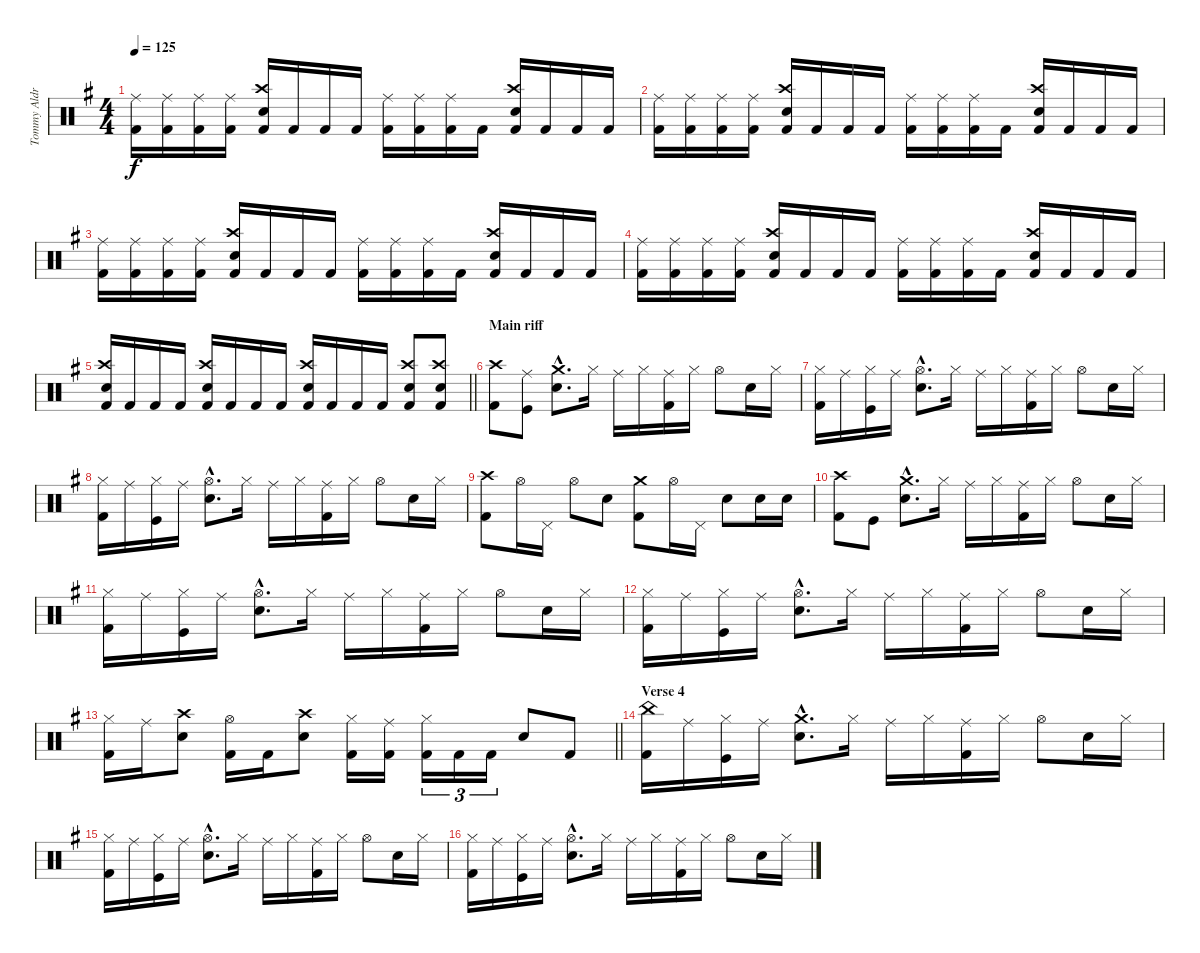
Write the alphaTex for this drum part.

\track ("Tommy Aldridge" "Tommy Aldr") {instrument percussion}
\staff {score}
\articulation defaults
\ts (4 4)
\tempo 125
\clef neutral
\ks eminor
("Ride (middle)" "Kick (hit) 2").16{dy f} ("Ride (middle)" "Kick (hit) 2").16 ("Ride (middle)" "Kick (hit) 2").16 ("Ride (middle)" "Kick (hit) 2").16 ("Crash high (hit)" "Snare (hit) 2" "Kick (hit) 2").16 "Kick (hit) 2".16 "Kick (hit) 2".16 "Kick (hit) 2".16 ("Ride (middle)" "Kick (hit) 2").16 ("Ride (middle)" "Kick (hit) 2").16 ("Ride (middle)" "Kick (hit) 2").16 "Kick (hit) 2".16 ("Crash high (hit)" "Snare (hit) 2" "Kick (hit) 2").16 "Kick (hit) 2".16 "Kick (hit) 2".16 "Kick (hit) 2".16 |
("Ride (middle)" "Kick (hit) 2").16 ("Ride (middle)" "Kick (hit) 2").16 ("Ride (middle)" "Kick (hit) 2").16 ("Ride (middle)" "Kick (hit) 2").16 ("Crash high (hit)" "Snare (hit) 2" "Kick (hit) 2").16 "Kick (hit) 2".16 "Kick (hit) 2".16 "Kick (hit) 2".16 ("Ride (middle)" "Kick (hit) 2").16 ("Ride (middle)" "Kick (hit) 2").16 ("Ride (middle)" "Kick (hit) 2").16 "Kick (hit) 2".16 ("Crash high (hit)" "Snare (hit) 2" "Kick (hit) 2").16 "Kick (hit) 2".16 "Kick (hit) 2".16 "Kick (hit) 2".16 |
("Ride (middle)" "Kick (hit) 2").16 ("Ride (middle)" "Kick (hit) 2").16 ("Ride (middle)" "Kick (hit) 2").16 ("Ride (middle)" "Kick (hit) 2").16 ("Crash high (hit)" "Snare (hit) 2" "Kick (hit) 2").16 "Kick (hit) 2".16 "Kick (hit) 2".16 "Kick (hit) 2".16 ("Ride (middle)" "Kick (hit) 2").16 ("Ride (middle)" "Kick (hit) 2").16 ("Ride (middle)" "Kick (hit) 2").16 "Kick (hit) 2".16 ("Crash high (hit)" "Snare (hit) 2" "Kick (hit) 2").16 "Kick (hit) 2".16 "Kick (hit) 2".16 "Kick (hit) 2".16 |
("Ride (middle)" "Kick (hit) 2").16 ("Ride (middle)" "Kick (hit) 2").16 ("Ride (middle)" "Kick (hit) 2").16 ("Ride (middle)" "Kick (hit) 2").16 ("Crash high (hit)" "Snare (hit) 2" "Kick (hit) 2").16 "Kick (hit) 2".16 "Kick (hit) 2".16 "Kick (hit) 2".16 ("Ride (middle)" "Kick (hit) 2").16 ("Ride (middle)" "Kick (hit) 2").16 ("Ride (middle)" "Kick (hit) 2").16 "Kick (hit) 2".16 ("Crash high (hit)" "Snare (hit) 2" "Kick (hit) 2").16 "Kick (hit) 2".16 "Kick (hit) 2".16 "Kick (hit) 2".16 |
\barLineRight lightlight
("Crash high (hit)" "Snare (hit) 2" "Kick (hit) 2").16 "Kick (hit) 2".16 "Kick (hit) 2".16 "Kick (hit) 2".16 ("Crash high (hit)" "Snare (hit) 2" "Kick (hit) 2").16 "Kick (hit) 2".16 "Kick (hit) 2".16 "Kick (hit) 2".16 ("Crash high (hit)" "Snare (hit) 2" "Kick (hit) 2").16 "Kick (hit) 2".16 "Kick (hit) 2".16 "Kick (hit) 2".16 ("Crash high (hit)" "Snare (hit) 2" "Kick (hit) 2").8 ("Crash high (hit)" "Snare (hit) 2" "Kick (hit) 2").8 |
\section ("" "Main riff")
("Crash high (hit)" "Kick (hit) 2").8 ("Ride (middle)" "Kick (hit)").8 ("Crash medium (hit)"{hac} "Snare (hit) 2"{hac}).8{d} "Hi-Hat (closed)".16 "Ride (middle)".16 "Hi-Hat (closed)".16 ("Ride (middle)" "Kick (hit) 2").16 "Hi-Hat (closed)".16 "Hi-Hat (open)".8 "Snare (hit) 2".16 "Hi-Hat (closed)".16 |
("Hi-Hat (closed)" "Kick (hit) 2").16 "Ride (middle)".16 ("Hi-Hat (closed)" "Kick (hit)").16 "Ride (middle)".16 ("Hi-Hat (open)"{hac} "Snare (hit) 2"{hac}).8{d} "Hi-Hat (closed)".16 "Ride (middle)".16 "Hi-Hat (closed)".16 ("Ride (middle)" "Kick (hit) 2").16 "Hi-Hat (closed)".16 "Hi-Hat (open)".8 "Snare (hit) 2".16 "Hi-Hat (closed)".16 |
("Hi-Hat (closed)" "Kick (hit) 2").16 "Ride (middle)".16 ("Hi-Hat (closed)" "Kick (hit)").16 "Ride (middle)".16 ("Hi-Hat (open)"{hac} "Snare (hit) 2"{hac}).8{d} "Hi-Hat (closed)".16 "Ride (middle)".16 "Hi-Hat (closed)".16 ("Ride (middle)" "Kick (hit) 2").16 "Hi-Hat (closed)".16 "Hi-Hat (open)".8 "Snare (hit) 2".16 "Hi-Hat (closed)".16 |
("Crash high (hit)" "Kick (hit) 2").8 "Hi-Hat (open)".16 "Pedal Hi-Hat (hit)".16 "Hi-Hat (open)".8 "Snare (hit) 2".8 ("Crash medium (hit)" "Kick (hit) 2").8 "Hi-Hat (open)".16 "Pedal Hi-Hat (hit)".16 "Snare (hit) 2".8 "Snare (hit) 2".16 "Snare (hit) 2".16 |
("Crash high (hit)" "Kick (hit) 2").8 "Kick (hit)".8 ("Crash medium (hit)"{hac} "Snare (hit) 2"{hac}).8{d} "Hi-Hat (closed)".16 "Ride (middle)".16 "Hi-Hat (closed)".16 ("Ride (middle)" "Kick (hit) 2").16 "Hi-Hat (closed)".16 "Hi-Hat (open)".8 "Snare (hit) 2".16 "Hi-Hat (closed)".16 |
("Hi-Hat (closed)" "Kick (hit) 2").16 "Ride (middle)".16 ("Hi-Hat (closed)" "Kick (hit)").16 "Ride (middle)".16 ("Hi-Hat (open)"{hac} "Snare (hit) 2"{hac}).8{d} "Hi-Hat (closed)".16 "Ride (middle)".16 "Hi-Hat (closed)".16 ("Ride (middle)" "Kick (hit) 2").16 "Hi-Hat (closed)".16 "Hi-Hat (open)".8 "Snare (hit) 2".16 "Hi-Hat (closed)".16 |
("Hi-Hat (closed)" "Kick (hit) 2").16 "Ride (middle)".16 ("Hi-Hat (closed)" "Kick (hit)").16 "Ride (middle)".16 ("Hi-Hat (open)"{hac} "Snare (hit) 2"{hac}).8{d} "Hi-Hat (closed)".16 "Ride (middle)".16 "Hi-Hat (closed)".16 ("Ride (middle)" "Kick (hit) 2").16 "Hi-Hat (closed)".16 "Hi-Hat (open)".8 "Snare (hit) 2".16 "Hi-Hat (closed)".16 |
\barLineRight lightlight
("Hi-Hat (closed)" "Kick (hit) 2").16 "Ride (middle)".16 ("Crash high (hit)" "Snare (hit) 2").8 ("Hi-Hat (open)" "Kick (hit) 2").16 "Kick (hit) 2".16 ("Crash high (hit)" "Snare (hit) 2").8 ("Hi-Hat (closed)" "Kick (hit) 2").16 ("Ride (middle)" "Kick (hit) 2").16 ("Hi-Hat (closed)" "Kick (hit) 2").16{tu (3 2)} "Kick (hit) 2".16{tu (3 2)} "Kick (hit) 2".16{tu (3 2)} "Snare (hit) 2".8 "Kick (hit) 2".8 |
\section ("" "Verse 4")
("China (hit)" "Kick (hit) 2").16 "Ride (middle)".16 ("Hi-Hat (closed)" "Kick (hit)").16 "Ride (middle)".16 ("Crash medium (hit)"{hac} "Snare (hit) 2"{hac}).8{d} "Hi-Hat (closed)".16 "Ride (middle)".16 "Hi-Hat (closed)".16 ("Ride (middle)" "Kick (hit) 2").16 "Hi-Hat (closed)".16 "Hi-Hat (open)".8 "Snare (hit) 2".16 "Hi-Hat (closed)".16 |
("Hi-Hat (closed)" "Kick (hit) 2").16 "Ride (middle)".16 ("Hi-Hat (closed)" "Kick (hit)").16 "Ride (middle)".16 ("Hi-Hat (open)"{hac} "Snare (hit) 2"{hac}).8{d} "Hi-Hat (closed)".16 "Ride (middle)".16 "Hi-Hat (closed)".16 ("Ride (middle)" "Kick (hit) 2").16 "Hi-Hat (closed)".16 "Hi-Hat (open)".8 "Snare (hit) 2".16 "Hi-Hat (closed)".16 |
("Hi-Hat (closed)" "Kick (hit) 2").16 "Ride (middle)".16 ("Hi-Hat (closed)" "Kick (hit)").16 "Ride (middle)".16 ("Hi-Hat (open)"{hac} "Snare (hit) 2"{hac}).8{d} "Hi-Hat (closed)".16 "Ride (middle)".16 "Hi-Hat (closed)".16 ("Ride (middle)" "Kick (hit) 2").16 "Hi-Hat (closed)".16 "Hi-Hat (open)".8 "Snare (hit) 2".16 "Hi-Hat (closed)".16
